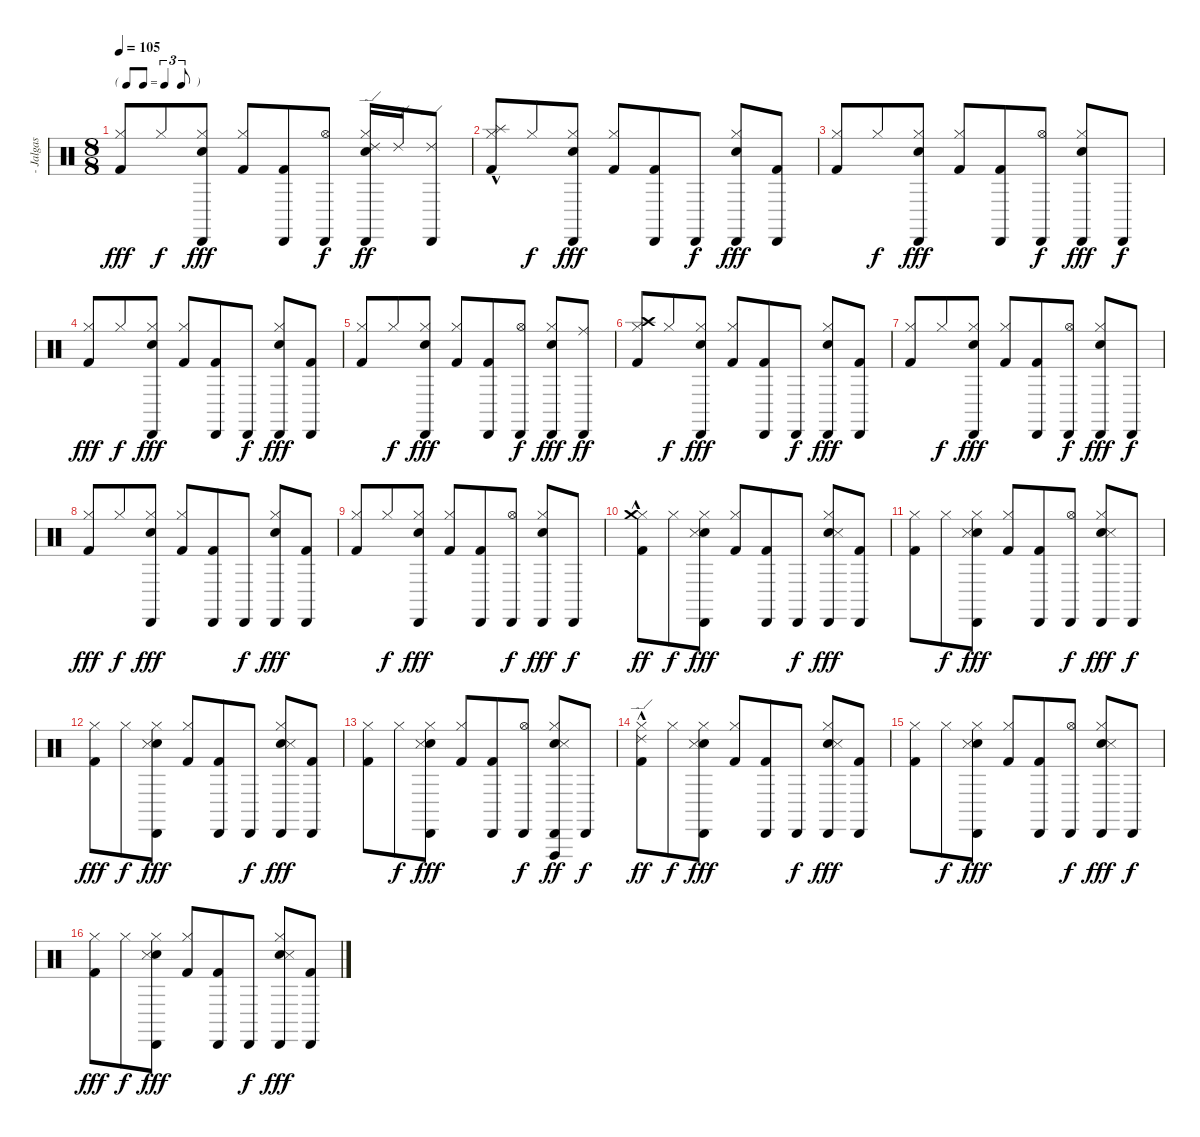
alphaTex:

\track (" - Jalgas -" " - Jalgas ") {instrument percussion}
\staff {score}
\articulation defaults
\ts (8 8)
\tf triplet8th
\tempo 105
\clef neutral
\ks c
("Kick (hit) 2" "Hi-Hat (closed)").8{dy fff} "Hi-Hat (closed)".8{dy f} ("Electric Snare (hit)" "Hi-Hat (closed)" "Cabasa (hit)").8{dy fff} ("Kick (hit) 2" "Hi-Hat (closed)").8 ("Kick (hit) 2" "Cabasa (hit)").8 ("Hi-Hat (open)" "Cabasa (hit)").8{dy f} ("Electric Snare (hit)" "Hi-Hat (closed)" "Cabasa (hit)" "Ride (edge) 2").16{dy ff} "Ride (edge) 2".16 ("Cabasa (hit)" "Ride (edge) 2").8 |
("Kick (hit) 2" "Hi-Hat (closed)" "Splash (hit)"{hac}).8 "Hi-Hat (closed)".8{dy f} ("Electric Snare (hit)" "Hi-Hat (closed)" "Cabasa (hit)").8{dy fff} ("Kick (hit) 2" "Hi-Hat (closed)").8 ("Kick (hit) 2" "Cabasa (hit)").8 "Cabasa (hit)".8{dy f} ("Electric Snare (hit)" "Hi-Hat (closed)" "Cabasa (hit)").8{dy fff} ("Kick (hit) 2" "Cabasa (hit)").8 |
("Kick (hit) 2" "Hi-Hat (closed)").8 "Hi-Hat (closed)".8{dy f} ("Electric Snare (hit)" "Hi-Hat (closed)" "Cabasa (hit)").8{dy fff} ("Kick (hit) 2" "Hi-Hat (closed)").8 ("Kick (hit) 2" "Cabasa (hit)").8 ("Hi-Hat (open)" "Cabasa (hit)").8{dy f} ("Electric Snare (hit)" "Hi-Hat (closed)" "Cabasa (hit)").8{dy fff} "Cabasa (hit)".8{dy f} |
("Kick (hit) 2" "Hi-Hat (closed)").8{dy fff} "Hi-Hat (closed)".8{dy f} ("Electric Snare (hit)" "Hi-Hat (closed)" "Cabasa (hit)").8{dy fff} ("Kick (hit) 2" "Hi-Hat (closed)").8 ("Kick (hit) 2" "Cabasa (hit)").8 "Cabasa (hit)".8{dy f} ("Electric Snare (hit)" "Hi-Hat (closed)" "Cabasa (hit)").8{dy fff} ("Kick (hit) 2" "Cabasa (hit)").8 |
("Kick (hit) 2" "Hi-Hat (closed)").8 "Hi-Hat (closed)".8{dy f} ("Electric Snare (hit)" "Hi-Hat (closed)" "Cabasa (hit)").8{dy fff} ("Kick (hit) 2" "Hi-Hat (closed)").8 ("Kick (hit) 2" "Cabasa (hit)").8 ("Hi-Hat (open)" "Cabasa (hit)").8{dy f} ("Electric Snare (hit)" "Hi-Hat (closed)" "Cabasa (hit)").8{dy fff} ("Cabasa (hit)" "Ride (middle)").8{dy ff} |
("Kick (hit) 2" "Hi-Hat (closed)" "Crash high (hit)").8 "Hi-Hat (closed)".8{dy f} ("Electric Snare (hit)" "Hi-Hat (closed)" "Cabasa (hit)").8{dy fff} ("Kick (hit) 2" "Hi-Hat (closed)").8 ("Kick (hit) 2" "Cabasa (hit)").8 "Cabasa (hit)".8{dy f} ("Electric Snare (hit)" "Hi-Hat (closed)" "Cabasa (hit)").8{dy fff} ("Kick (hit) 2" "Cabasa (hit)").8 |
("Kick (hit) 2" "Hi-Hat (closed)").8 "Hi-Hat (closed)".8{dy f} ("Electric Snare (hit)" "Hi-Hat (closed)" "Cabasa (hit)").8{dy fff} ("Kick (hit) 2" "Hi-Hat (closed)").8 ("Kick (hit) 2" "Cabasa (hit)").8 ("Hi-Hat (open)" "Cabasa (hit)").8{dy f} ("Electric Snare (hit)" "Hi-Hat (closed)" "Cabasa (hit)").8{dy fff} "Cabasa (hit)".8{dy f} |
("Kick (hit) 2" "Hi-Hat (closed)").8{dy fff} "Hi-Hat (closed)".8{dy f} ("Electric Snare (hit)" "Hi-Hat (closed)" "Cabasa (hit)").8{dy fff} ("Kick (hit) 2" "Hi-Hat (closed)").8 ("Kick (hit) 2" "Cabasa (hit)").8 "Cabasa (hit)".8{dy f} ("Electric Snare (hit)" "Hi-Hat (closed)" "Cabasa (hit)").8{dy fff} ("Kick (hit) 2" "Cabasa (hit)").8 |
("Kick (hit) 2" "Hi-Hat (closed)").8 "Hi-Hat (closed)".8{dy f} ("Electric Snare (hit)" "Hi-Hat (closed)" "Cabasa (hit)").8{dy fff} ("Kick (hit) 2" "Hi-Hat (closed)").8 ("Kick (hit) 2" "Cabasa (hit)").8 ("Hi-Hat (open)" "Cabasa (hit)").8{dy f} ("Electric Snare (hit)" "Hi-Hat (closed)" "Cabasa (hit)").8{dy fff} "Cabasa (hit)".8{dy f} |
("Kick (hit) 2" "Hi-Hat (closed)" "Crash medium (hit)"{hac}).8{dy ff} "Hi-Hat (closed)".8{dy f} ("Electric Snare (hit)" "Snare (side stick) 3" "Hi-Hat (closed)" "Cabasa (hit)").8{dy fff} ("Kick (hit) 2" "Hi-Hat (closed)").8 ("Kick (hit) 2" "Cabasa (hit)").8 "Cabasa (hit)".8{dy f} ("Electric Snare (hit)" "Snare (side stick) 3" "Hi-Hat (closed)" "Cabasa (hit)").8{dy fff} ("Kick (hit) 2" "Cabasa (hit)").8 |
("Kick (hit) 2" "Hi-Hat (closed)").8 "Hi-Hat (closed)".8{dy f} ("Electric Snare (hit)" "Snare (side stick) 3" "Hi-Hat (closed)" "Cabasa (hit)").8{dy fff} ("Kick (hit) 2" "Hi-Hat (closed)").8 ("Kick (hit) 2" "Cabasa (hit)").8 ("Hi-Hat (open)" "Cabasa (hit)").8{dy f} ("Electric Snare (hit)" "Snare (side stick) 3" "Hi-Hat (closed)" "Cabasa (hit)").8{dy fff} "Cabasa (hit)".8{dy f} |
("Kick (hit) 2" "Hi-Hat (closed)").8{dy fff} "Hi-Hat (closed)".8{dy f} ("Electric Snare (hit)" "Snare (side stick) 3" "Hi-Hat (closed)" "Cabasa (hit)").8{dy fff} ("Kick (hit) 2" "Hi-Hat (closed)").8 ("Kick (hit) 2" "Cabasa (hit)").8 "Cabasa (hit)".8{dy f} ("Electric Snare (hit)" "Snare (side stick) 3" "Hi-Hat (closed)" "Cabasa (hit)").8{dy fff} ("Kick (hit) 2" "Cabasa (hit)").8 |
("Kick (hit) 2" "Hi-Hat (closed)").8 "Hi-Hat (closed)".8{dy f} ("Electric Snare (hit)" "Snare (side stick) 3" "Hi-Hat (closed)" "Cabasa (hit)").8{dy fff} ("Kick (hit) 2" "Hi-Hat (closed)").8 ("Kick (hit) 2" "Cabasa (hit)").8 ("Hi-Hat (open)" "Cabasa (hit)").8{dy f} ("Electric Snare (hit)" "Snare (side stick) 3" "Hi-Hat (closed)" "Cabasa (hit)" "Vibraslap (hit)").8{dy ff} "Cabasa (hit)".8{dy f} |
("Kick (hit) 2" "Hi-Hat (closed)" "Ride (edge) 2"{hac}).8{dy ff} "Hi-Hat (closed)".8{dy f} ("Electric Snare (hit)" "Snare (side stick) 3" "Hi-Hat (closed)" "Cabasa (hit)").8{dy fff} ("Kick (hit) 2" "Hi-Hat (closed)").8 ("Kick (hit) 2" "Cabasa (hit)").8 "Cabasa (hit)".8{dy f} ("Electric Snare (hit)" "Snare (side stick) 3" "Hi-Hat (closed)" "Cabasa (hit)").8{dy fff} ("Kick (hit) 2" "Cabasa (hit)").8 |
("Kick (hit) 2" "Hi-Hat (closed)").8 "Hi-Hat (closed)".8{dy f} ("Electric Snare (hit)" "Snare (side stick) 3" "Hi-Hat (closed)" "Cabasa (hit)").8{dy fff} ("Kick (hit) 2" "Hi-Hat (closed)").8 ("Kick (hit) 2" "Cabasa (hit)").8 ("Hi-Hat (open)" "Cabasa (hit)").8{dy f} ("Electric Snare (hit)" "Snare (side stick) 3" "Hi-Hat (closed)" "Cabasa (hit)").8{dy fff} "Cabasa (hit)".8{dy f} |
("Kick (hit) 2" "Hi-Hat (closed)").8{dy fff} "Hi-Hat (closed)".8{dy f} ("Electric Snare (hit)" "Snare (side stick) 3" "Hi-Hat (closed)" "Cabasa (hit)").8{dy fff} ("Kick (hit) 2" "Hi-Hat (closed)").8 ("Kick (hit) 2" "Cabasa (hit)").8 "Cabasa (hit)".8{dy f} ("Electric Snare (hit)" "Snare (side stick) 3" "Hi-Hat (closed)" "Cabasa (hit)").8{dy fff} ("Kick (hit) 2" "Cabasa (hit)").8
